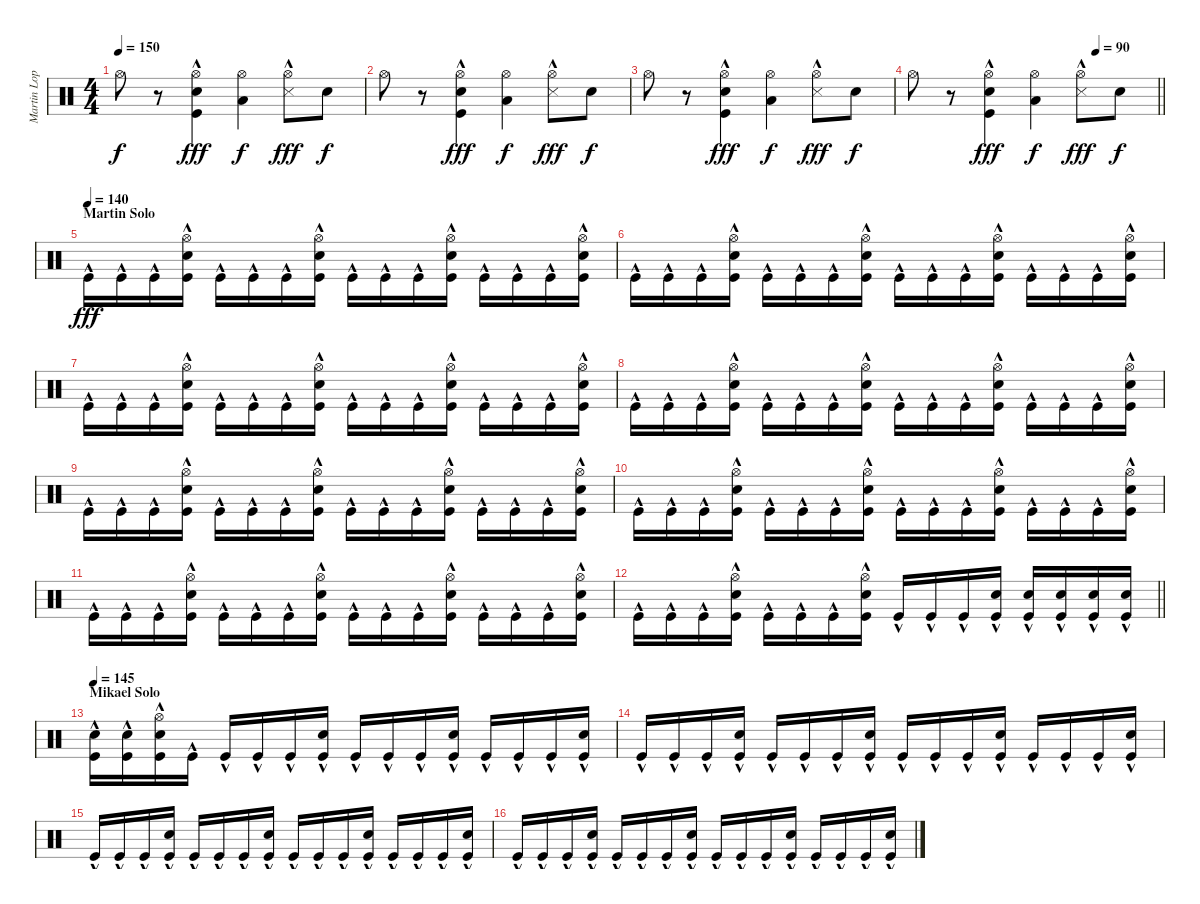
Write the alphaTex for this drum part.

\track ("Martin Lopez" "Martin Lop") {instrument percussion}
\staff {score}
\articulation defaults
\ts (4 4)
\tempo 150
\clef neutral
\ks c "Hi-Hat (open)".8{dy f}
r.8 ("Hi-Hat (open)" "Electric Snare (hit)" "Kick (hit)"{hac}).4{dy fff} ("Hi-Hat (open)" "Low Tom (hit)").4{dy f} ("Hi-Hat (open)"{hac} "Snare (side stick) 3"{hac}).8{dy fff} "Electric Snare (hit)".8{dy f} |
"Hi-Hat (open)".8 r.8 ("Hi-Hat (open)" "Electric Snare (hit)" "Kick (hit)"{hac}).4{dy fff} ("Hi-Hat (open)" "Low Tom (hit)").4{dy f} ("Hi-Hat (open)"{hac} "Snare (side stick) 3"{hac}).8{dy fff} "Electric Snare (hit)".8{dy f} |
"Hi-Hat (open)".8 r.8 ("Hi-Hat (open)" "Electric Snare (hit)" "Kick (hit)"{hac}).4{dy fff} ("Hi-Hat (open)" "Low Tom (hit)").4{dy f} ("Hi-Hat (open)"{hac} "Snare (side stick) 3"{hac}).8{dy fff} "Electric Snare (hit)".8{dy f} |
\tempo (90 0.75)
\barLineRight lightlight "Hi-Hat (open)".8
r.8 ("Hi-Hat (open)" "Electric Snare (hit)" "Kick (hit)"{hac}).4{dy fff} ("Hi-Hat (open)" "Low Tom (hit)").4{dy f} ("Hi-Hat (open)"{hac} "Snare (side stick) 3"{hac}).8{dy fff} "Electric Snare (hit)".8{dy f} |
\section ("" "Martin Solo")
\tempo (140)
"Kick (hit)"{hac}.16{dy fff} "Kick (hit)"{hac}.16 "Kick (hit)"{hac}.16 ("Hi-Hat (open)" "Electric Snare (hit)" "Kick (hit)"{hac}).16 "Kick (hit)"{hac}.16 "Kick (hit)"{hac}.16 "Kick (hit)"{hac}.16 ("Hi-Hat (open)" "Electric Snare (hit)" "Kick (hit)"{hac}).16 "Kick (hit)"{hac}.16 "Kick (hit)"{hac}.16 "Kick (hit)"{hac}.16 ("Hi-Hat (open)" "Electric Snare (hit)" "Kick (hit)"{hac}).16 "Kick (hit)"{hac}.16 "Kick (hit)"{hac}.16 "Kick (hit)"{hac}.16 ("Hi-Hat (open)" "Electric Snare (hit)" "Kick (hit)"{hac}).16 |
"Kick (hit)"{hac}.16 "Kick (hit)"{hac}.16 "Kick (hit)"{hac}.16 ("Hi-Hat (open)" "Electric Snare (hit)" "Kick (hit)"{hac}).16 "Kick (hit)"{hac}.16 "Kick (hit)"{hac}.16 "Kick (hit)"{hac}.16 ("Hi-Hat (open)" "Electric Snare (hit)" "Kick (hit)"{hac}).16 "Kick (hit)"{hac}.16 "Kick (hit)"{hac}.16 "Kick (hit)"{hac}.16 ("Hi-Hat (open)" "Electric Snare (hit)" "Kick (hit)"{hac}).16 "Kick (hit)"{hac}.16 "Kick (hit)"{hac}.16 "Kick (hit)"{hac}.16 ("Hi-Hat (open)" "Electric Snare (hit)" "Kick (hit)"{hac}).16 |
"Kick (hit)"{hac}.16 "Kick (hit)"{hac}.16 "Kick (hit)"{hac}.16 ("Hi-Hat (open)" "Electric Snare (hit)" "Kick (hit)"{hac}).16 "Kick (hit)"{hac}.16 "Kick (hit)"{hac}.16 "Kick (hit)"{hac}.16 ("Hi-Hat (open)" "Electric Snare (hit)" "Kick (hit)"{hac}).16 "Kick (hit)"{hac}.16 "Kick (hit)"{hac}.16 "Kick (hit)"{hac}.16 ("Hi-Hat (open)" "Electric Snare (hit)" "Kick (hit)"{hac}).16 "Kick (hit)"{hac}.16 "Kick (hit)"{hac}.16 "Kick (hit)"{hac}.16 ("Hi-Hat (open)" "Electric Snare (hit)" "Kick (hit)"{hac}).16 |
"Kick (hit)"{hac}.16 "Kick (hit)"{hac}.16 "Kick (hit)"{hac}.16 ("Hi-Hat (open)" "Electric Snare (hit)" "Kick (hit)"{hac}).16 "Kick (hit)"{hac}.16 "Kick (hit)"{hac}.16 "Kick (hit)"{hac}.16 ("Hi-Hat (open)" "Electric Snare (hit)" "Kick (hit)"{hac}).16 "Kick (hit)"{hac}.16 "Kick (hit)"{hac}.16 "Kick (hit)"{hac}.16 ("Hi-Hat (open)" "Electric Snare (hit)" "Kick (hit)"{hac}).16 "Kick (hit)"{hac}.16 "Kick (hit)"{hac}.16 "Kick (hit)"{hac}.16 ("Hi-Hat (open)" "Electric Snare (hit)" "Kick (hit)"{hac}).16 |
"Kick (hit)"{hac}.16 "Kick (hit)"{hac}.16 "Kick (hit)"{hac}.16 ("Hi-Hat (open)" "Electric Snare (hit)" "Kick (hit)"{hac}).16 "Kick (hit)"{hac}.16 "Kick (hit)"{hac}.16 "Kick (hit)"{hac}.16 ("Hi-Hat (open)" "Electric Snare (hit)" "Kick (hit)"{hac}).16 "Kick (hit)"{hac}.16 "Kick (hit)"{hac}.16 "Kick (hit)"{hac}.16 ("Hi-Hat (open)" "Electric Snare (hit)" "Kick (hit)"{hac}).16 "Kick (hit)"{hac}.16 "Kick (hit)"{hac}.16 "Kick (hit)"{hac}.16 ("Hi-Hat (open)" "Electric Snare (hit)" "Kick (hit)"{hac}).16 |
"Kick (hit)"{hac}.16 "Kick (hit)"{hac}.16 "Kick (hit)"{hac}.16 ("Hi-Hat (open)" "Electric Snare (hit)" "Kick (hit)"{hac}).16 "Kick (hit)"{hac}.16 "Kick (hit)"{hac}.16 "Kick (hit)"{hac}.16 ("Hi-Hat (open)" "Electric Snare (hit)" "Kick (hit)"{hac}).16 "Kick (hit)"{hac}.16 "Kick (hit)"{hac}.16 "Kick (hit)"{hac}.16 ("Hi-Hat (open)" "Electric Snare (hit)" "Kick (hit)"{hac}).16 "Kick (hit)"{hac}.16 "Kick (hit)"{hac}.16 "Kick (hit)"{hac}.16 ("Hi-Hat (open)" "Electric Snare (hit)" "Kick (hit)"{hac}).16 |
"Kick (hit)"{hac}.16 "Kick (hit)"{hac}.16 "Kick (hit)"{hac}.16 ("Hi-Hat (open)" "Electric Snare (hit)" "Kick (hit)"{hac}).16 "Kick (hit)"{hac}.16 "Kick (hit)"{hac}.16 "Kick (hit)"{hac}.16 ("Hi-Hat (open)" "Electric Snare (hit)" "Kick (hit)"{hac}).16 "Kick (hit)"{hac}.16 "Kick (hit)"{hac}.16 "Kick (hit)"{hac}.16 ("Hi-Hat (open)" "Electric Snare (hit)" "Kick (hit)"{hac}).16 "Kick (hit)"{hac}.16 "Kick (hit)"{hac}.16 "Kick (hit)"{hac}.16 ("Hi-Hat (open)" "Electric Snare (hit)" "Kick (hit)"{hac}).16 |
\barLineRight lightlight "Kick (hit)"{hac}.16 "Kick (hit)"{hac}.16 "Kick (hit)"{hac}.16
("Hi-Hat (open)" "Electric Snare (hit)" "Kick (hit)"{hac}).16 "Kick (hit)"{hac}.16 "Kick (hit)"{hac}.16 "Kick (hit)"{hac}.16 ("Hi-Hat (open)" "Electric Snare (hit)" "Kick (hit)"{hac}).16 "Kick (hit)"{hac}.16 "Kick (hit)"{hac}.16 "Kick (hit)"{hac}.16 ("Electric Snare (hit)" "Kick (hit)"{hac}).16 ("Electric Snare (hit)" "Kick (hit)"{hac}).16 ("Electric Snare (hit)" "Kick (hit)"{hac}).16 ("Electric Snare (hit)" "Kick (hit)"{hac}).16 ("Electric Snare (hit)" "Kick (hit)"{hac}).16 |
\section ("" "Mikael Solo")
\tempo 145
("Electric Snare (hit)" "Kick (hit)"{hac}).16 ("Electric Snare (hit)" "Kick (hit)"{hac}).16 ("Hi-Hat (open)" "Electric Snare (hit)" "Kick (hit)"{hac}).16 "Kick (hit)"{hac}.16 "Kick (hit)"{hac}.16 "Kick (hit)"{hac}.16 "Kick (hit)"{hac}.16 ("Electric Snare (hit)" "Kick (hit)"{hac}).16 "Kick (hit)"{hac}.16 "Kick (hit)"{hac}.16 "Kick (hit)"{hac}.16 ("Electric Snare (hit)" "Kick (hit)"{hac}).16 "Kick (hit)"{hac}.16 "Kick (hit)"{hac}.16 "Kick (hit)"{hac}.16 ("Electric Snare (hit)" "Kick (hit)"{hac}).16 |
"Kick (hit)"{hac}.16 "Kick (hit)"{hac}.16 "Kick (hit)"{hac}.16 ("Electric Snare (hit)" "Kick (hit)"{hac}).16 "Kick (hit)"{hac}.16 "Kick (hit)"{hac}.16 "Kick (hit)"{hac}.16 ("Electric Snare (hit)" "Kick (hit)"{hac}).16 "Kick (hit)"{hac}.16 "Kick (hit)"{hac}.16 "Kick (hit)"{hac}.16 ("Electric Snare (hit)" "Kick (hit)"{hac}).16 "Kick (hit)"{hac}.16 "Kick (hit)"{hac}.16 "Kick (hit)"{hac}.16 ("Electric Snare (hit)" "Kick (hit)"{hac}).16 |
"Kick (hit)"{hac}.16 "Kick (hit)"{hac}.16 "Kick (hit)"{hac}.16 ("Electric Snare (hit)" "Kick (hit)"{hac}).16 "Kick (hit)"{hac}.16 "Kick (hit)"{hac}.16 "Kick (hit)"{hac}.16 ("Electric Snare (hit)" "Kick (hit)"{hac}).16 "Kick (hit)"{hac}.16 "Kick (hit)"{hac}.16 "Kick (hit)"{hac}.16 ("Electric Snare (hit)" "Kick (hit)"{hac}).16 "Kick (hit)"{hac}.16 "Kick (hit)"{hac}.16 "Kick (hit)"{hac}.16 ("Electric Snare (hit)" "Kick (hit)"{hac}).16 |
"Kick (hit)"{hac}.16 "Kick (hit)"{hac}.16 "Kick (hit)"{hac}.16 ("Electric Snare (hit)" "Kick (hit)"{hac}).16 "Kick (hit)"{hac}.16 "Kick (hit)"{hac}.16 "Kick (hit)"{hac}.16 ("Electric Snare (hit)" "Kick (hit)"{hac}).16 "Kick (hit)"{hac}.16 "Kick (hit)"{hac}.16 "Kick (hit)"{hac}.16 ("Electric Snare (hit)" "Kick (hit)"{hac}).16 "Kick (hit)"{hac}.16 "Kick (hit)"{hac}.16 "Kick (hit)"{hac}.16 ("Electric Snare (hit)" "Kick (hit)"{hac}).16
